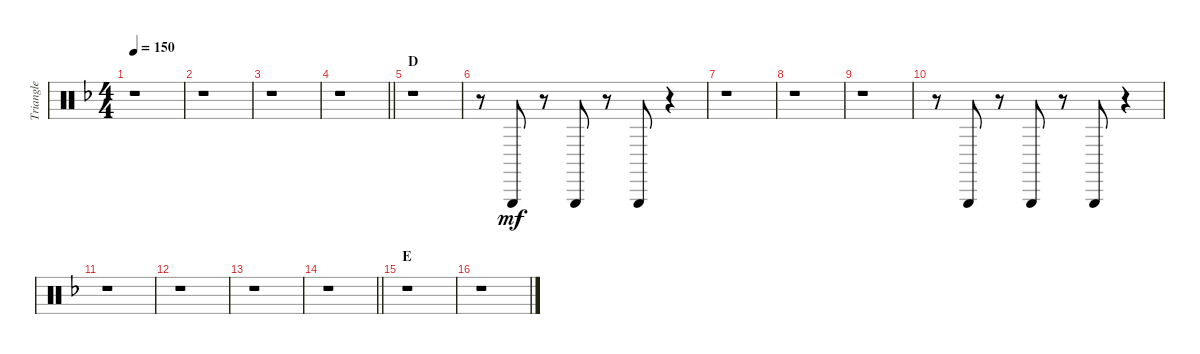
\track ("Triangle" "Triangle") {instrument percussion}
\staff {score}
\articulation defaults
\ts (4 4)
\tempo 150
\clef neutral
\ks f
r.1{dy mf} |
r.1 |
r.1 |
\barLineRight lightlight
r.1 |
\section ("" "D")
r.1 |
r.8 "Triangle (hit)".8 r.8 "Triangle (hit)".8 r.8 "Triangle (hit)".8 r.4 |
r.1 |
r.1 |
r.1 |
r.8 "Triangle (hit)".8 r.8 "Triangle (hit)".8 r.8 "Triangle (hit)".8 r.4 |
r.1 |
r.1 |
r.1 |
\barLineRight lightlight
r.1 |
\section ("" "E")
r.1 |
r.1
